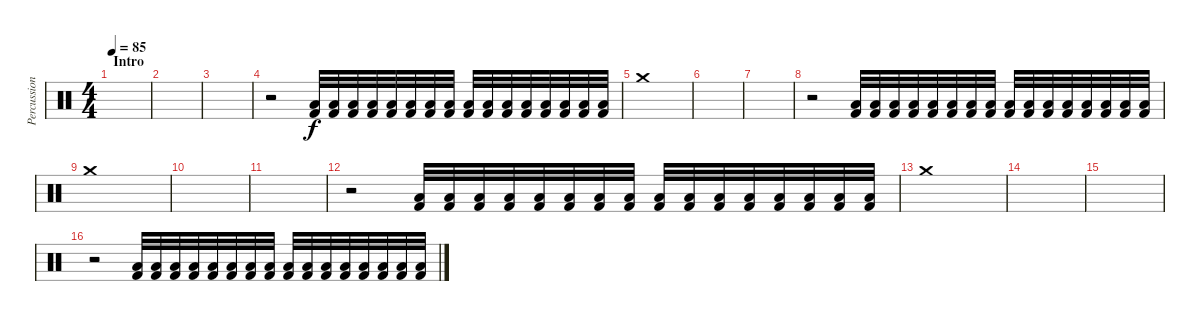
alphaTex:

\track ("Percussion" "Percussion") {instrument percussion}
\staff {score}
\articulation defaults
\ts (4 4)
\section ("" "Intro")
\tempo 85
\clef neutral
\ks c
|
|
|
r.2 ("Low Floor Tom (hit)" "Kick (hit) 2").32 ("Low Floor Tom (hit)" "Kick (hit) 2").32 ("Low Floor Tom (hit)" "Kick (hit) 2").32 ("Low Floor Tom (hit)" "Kick (hit) 2").32 ("Low Floor Tom (hit)" "Kick (hit) 2").32 ("Low Floor Tom (hit)" "Kick (hit) 2").32 ("Low Floor Tom (hit)" "Kick (hit) 2").32 ("Low Floor Tom (hit)" "Kick (hit) 2").32 ("Low Floor Tom (hit)" "Kick (hit) 2").32 ("Low Floor Tom (hit)" "Kick (hit) 2").32 ("Low Floor Tom (hit)" "Kick (hit) 2").32 ("Low Floor Tom (hit)" "Kick (hit) 2").32 ("Low Floor Tom (hit)" "Kick (hit) 2").32 ("Low Floor Tom (hit)" "Kick (hit) 2").32 ("Low Floor Tom (hit)" "Kick (hit) 2").32 ("Low Floor Tom (hit)" "Kick (hit) 2").32 |
"Crash medium (hit)".1 |
|
|
r.2 ("Low Floor Tom (hit)" "Kick (hit) 2").32 ("Low Floor Tom (hit)" "Kick (hit) 2").32 ("Low Floor Tom (hit)" "Kick (hit) 2").32 ("Low Floor Tom (hit)" "Kick (hit) 2").32 ("Low Floor Tom (hit)" "Kick (hit) 2").32 ("Low Floor Tom (hit)" "Kick (hit) 2").32 ("Low Floor Tom (hit)" "Kick (hit) 2").32 ("Low Floor Tom (hit)" "Kick (hit) 2").32 ("Low Floor Tom (hit)" "Kick (hit) 2").32 ("Low Floor Tom (hit)" "Kick (hit) 2").32 ("Low Floor Tom (hit)" "Kick (hit) 2").32 ("Low Floor Tom (hit)" "Kick (hit) 2").32 ("Low Floor Tom (hit)" "Kick (hit) 2").32 ("Low Floor Tom (hit)" "Kick (hit) 2").32 ("Low Floor Tom (hit)" "Kick (hit) 2").32 ("Low Floor Tom (hit)" "Kick (hit) 2").32 |
"Crash medium (hit)".1 |
|
|
r.2 ("Low Floor Tom (hit)" "Kick (hit) 2").32 ("Low Floor Tom (hit)" "Kick (hit) 2").32 ("Low Floor Tom (hit)" "Kick (hit) 2").32 ("Low Floor Tom (hit)" "Kick (hit) 2").32 ("Low Floor Tom (hit)" "Kick (hit) 2").32 ("Low Floor Tom (hit)" "Kick (hit) 2").32 ("Low Floor Tom (hit)" "Kick (hit) 2").32 ("Low Floor Tom (hit)" "Kick (hit) 2").32 ("Low Floor Tom (hit)" "Kick (hit) 2").32 ("Low Floor Tom (hit)" "Kick (hit) 2").32 ("Low Floor Tom (hit)" "Kick (hit) 2").32 ("Low Floor Tom (hit)" "Kick (hit) 2").32 ("Low Floor Tom (hit)" "Kick (hit) 2").32 ("Low Floor Tom (hit)" "Kick (hit) 2").32 ("Low Floor Tom (hit)" "Kick (hit) 2").32 ("Low Floor Tom (hit)" "Kick (hit) 2").32 |
"Crash medium (hit)".1 |
|
|
r.2 ("Low Floor Tom (hit)" "Kick (hit) 2").32 ("Low Floor Tom (hit)" "Kick (hit) 2").32 ("Low Floor Tom (hit)" "Kick (hit) 2").32 ("Low Floor Tom (hit)" "Kick (hit) 2").32 ("Low Floor Tom (hit)" "Kick (hit) 2").32 ("Low Floor Tom (hit)" "Kick (hit) 2").32 ("Low Floor Tom (hit)" "Kick (hit) 2").32 ("Low Floor Tom (hit)" "Kick (hit) 2").32 ("Low Floor Tom (hit)" "Kick (hit) 2").32 ("Low Floor Tom (hit)" "Kick (hit) 2").32 ("Low Floor Tom (hit)" "Kick (hit) 2").32 ("Low Floor Tom (hit)" "Kick (hit) 2").32 ("Low Floor Tom (hit)" "Kick (hit) 2").32 ("Low Floor Tom (hit)" "Kick (hit) 2").32 ("Low Floor Tom (hit)" "Kick (hit) 2").32 ("Low Floor Tom (hit)" "Kick (hit) 2").32
